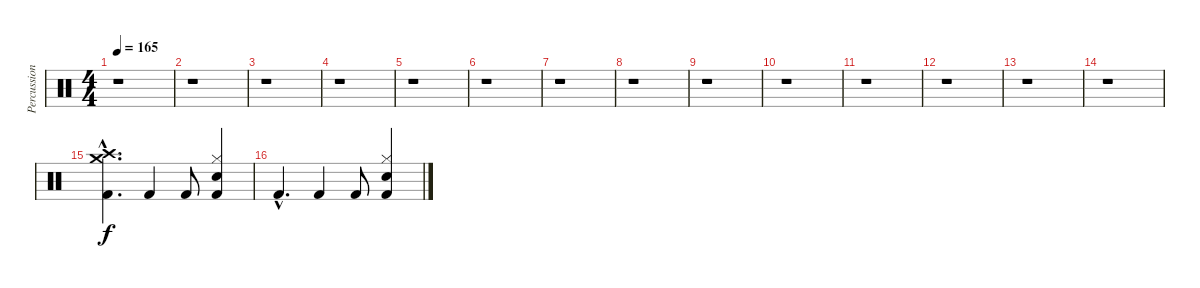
\track ("Percussion" "Percussion") {instrument percussion}
\staff {score}
\articulation defaults
\ts (4 4)
\tempo 165
\clef neutral
\ks c
r.1{dy f} |
r.1 |
r.1 |
r.1 |
r.1 |
r.1 |
r.1 |
r.1 |
r.1 |
r.1 |
r.1 |
r.1 |
r.1 |
r.1 |
("Crash high (hit)"{hac} "Crash medium (hit)"{hac} "Kick (hit) 2"{hac}).4{d} "Kick (hit) 2".4 "Kick (hit) 2".8 ("Hi-Hat (closed)" "Electric Snare (hit)" "Kick (hit) 2").4 |
"Kick (hit) 2"{hac}.4{d} "Kick (hit) 2".4 "Kick (hit) 2".8 ("Hi-Hat (closed)" "Electric Snare (hit)" "Kick (hit) 2").4
